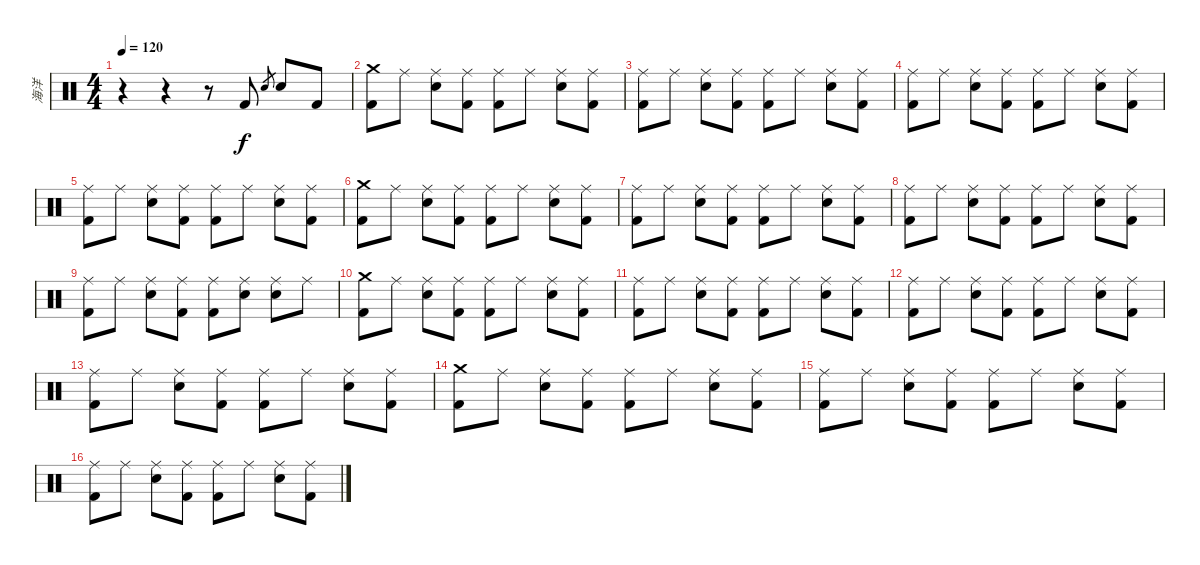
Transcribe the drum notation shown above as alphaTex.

\track ("海洋" "海洋") {instrument percussion}
\staff {score}
\articulation defaults
\ts (4 4)
\tempo 120
\clef neutral
\ks c
r.4{dy f} r.4 r.8 "Kick (hit) 2".8 "Electric Snare (hit)".8{gr} "Electric Snare (hit)".8 "Kick (hit) 2".8 |
("Crash medium (hit)" "Kick (hit) 2").8 "Ride (middle)".8 ("Ride (middle)" "Electric Snare (hit)").8 ("Ride (middle)" "Kick (hit) 2").8 ("Ride (middle)" "Kick (hit) 2").8 "Ride (middle)".8 ("Ride (middle)" "Electric Snare (hit)").8 ("Ride (middle)" "Kick (hit) 2").8 |
("Ride (middle)" "Kick (hit) 2").8 "Ride (middle)".8 ("Ride (middle)" "Electric Snare (hit)").8 ("Ride (middle)" "Kick (hit) 2").8 ("Ride (middle)" "Kick (hit) 2").8 "Ride (middle)".8 ("Ride (middle)" "Electric Snare (hit)").8 ("Ride (middle)" "Kick (hit) 2").8 |
("Ride (middle)" "Kick (hit) 2").8 "Ride (middle)".8 ("Ride (middle)" "Electric Snare (hit)").8 ("Ride (middle)" "Kick (hit) 2").8 ("Ride (middle)" "Kick (hit) 2").8 "Ride (middle)".8 ("Ride (middle)" "Electric Snare (hit)").8 ("Ride (middle)" "Kick (hit) 2").8 |
("Ride (middle)" "Kick (hit) 2").8 "Ride (middle)".8 ("Ride (middle)" "Electric Snare (hit)").8 ("Ride (middle)" "Kick (hit) 2").8 ("Ride (middle)" "Kick (hit) 2").8 "Ride (middle)".8 ("Ride (middle)" "Electric Snare (hit)").8 ("Ride (middle)" "Kick (hit) 2").8 |
("Crash medium (hit)" "Kick (hit) 2").8 "Ride (middle)".8 ("Ride (middle)" "Electric Snare (hit)").8 ("Ride (middle)" "Kick (hit) 2").8 ("Ride (middle)" "Kick (hit) 2").8 "Ride (middle)".8 ("Ride (middle)" "Electric Snare (hit)").8 ("Ride (middle)" "Kick (hit) 2").8 |
("Ride (middle)" "Kick (hit) 2").8 "Ride (middle)".8 ("Ride (middle)" "Electric Snare (hit)").8 ("Ride (middle)" "Kick (hit) 2").8 ("Ride (middle)" "Kick (hit) 2").8 "Ride (middle)".8 ("Ride (middle)" "Electric Snare (hit)").8 ("Ride (middle)" "Kick (hit) 2").8 |
("Ride (middle)" "Kick (hit) 2").8 "Ride (middle)".8 ("Ride (middle)" "Electric Snare (hit)").8 ("Ride (middle)" "Kick (hit) 2").8 ("Ride (middle)" "Kick (hit) 2").8 "Ride (middle)".8 ("Ride (middle)" "Electric Snare (hit)").8 ("Ride (middle)" "Kick (hit) 2").8 |
("Ride (middle)" "Kick (hit) 2").8 "Ride (middle)".8 ("Ride (middle)" "Electric Snare (hit)").8 ("Ride (middle)" "Kick (hit) 2").8 ("Ride (middle)" "Kick (hit) 2").8 ("Ride (middle)" "Electric Snare (hit)").8 ("Ride (middle)" "Electric Snare (hit)").8 "Ride (middle)".8 |
("Crash medium (hit)" "Kick (hit) 2").8 "Ride (middle)".8 ("Ride (middle)" "Electric Snare (hit)").8 ("Ride (middle)" "Kick (hit) 2").8 ("Ride (middle)" "Kick (hit) 2").8 "Ride (middle)".8 ("Ride (middle)" "Electric Snare (hit)").8 ("Ride (middle)" "Kick (hit) 2").8 |
("Ride (middle)" "Kick (hit) 2").8 "Ride (middle)".8 ("Ride (middle)" "Electric Snare (hit)").8 ("Ride (middle)" "Kick (hit) 2").8 ("Ride (middle)" "Kick (hit) 2").8 "Ride (middle)".8 ("Ride (middle)" "Electric Snare (hit)").8 ("Ride (middle)" "Kick (hit) 2").8 |
("Ride (middle)" "Kick (hit) 2").8 "Ride (middle)".8 ("Ride (middle)" "Electric Snare (hit)").8 ("Ride (middle)" "Kick (hit) 2").8 ("Ride (middle)" "Kick (hit) 2").8 "Ride (middle)".8 ("Ride (middle)" "Electric Snare (hit)").8 ("Ride (middle)" "Kick (hit) 2").8 |
("Ride (middle)" "Kick (hit) 2").8 "Ride (middle)".8 ("Ride (middle)" "Electric Snare (hit)").8 ("Ride (middle)" "Kick (hit) 2").8 ("Ride (middle)" "Kick (hit) 2").8 "Ride (middle)".8 ("Ride (middle)" "Electric Snare (hit)").8 ("Ride (middle)" "Kick (hit) 2").8 |
("Crash medium (hit)" "Kick (hit) 2").8 "Ride (middle)".8 ("Ride (middle)" "Electric Snare (hit)").8 ("Ride (middle)" "Kick (hit) 2").8 ("Ride (middle)" "Kick (hit) 2").8 "Ride (middle)".8 ("Ride (middle)" "Electric Snare (hit)").8 ("Ride (middle)" "Kick (hit) 2").8 |
("Ride (middle)" "Kick (hit) 2").8 "Ride (middle)".8 ("Ride (middle)" "Electric Snare (hit)").8 ("Ride (middle)" "Kick (hit) 2").8 ("Ride (middle)" "Kick (hit) 2").8 "Ride (middle)".8 ("Ride (middle)" "Electric Snare (hit)").8 ("Ride (middle)" "Kick (hit) 2").8 |
("Ride (middle)" "Kick (hit) 2").8 "Ride (middle)".8 ("Ride (middle)" "Electric Snare (hit)").8 ("Ride (middle)" "Kick (hit) 2").8 ("Ride (middle)" "Kick (hit) 2").8 "Ride (middle)".8 ("Ride (middle)" "Electric Snare (hit)").8 ("Ride (middle)" "Kick (hit) 2").8
